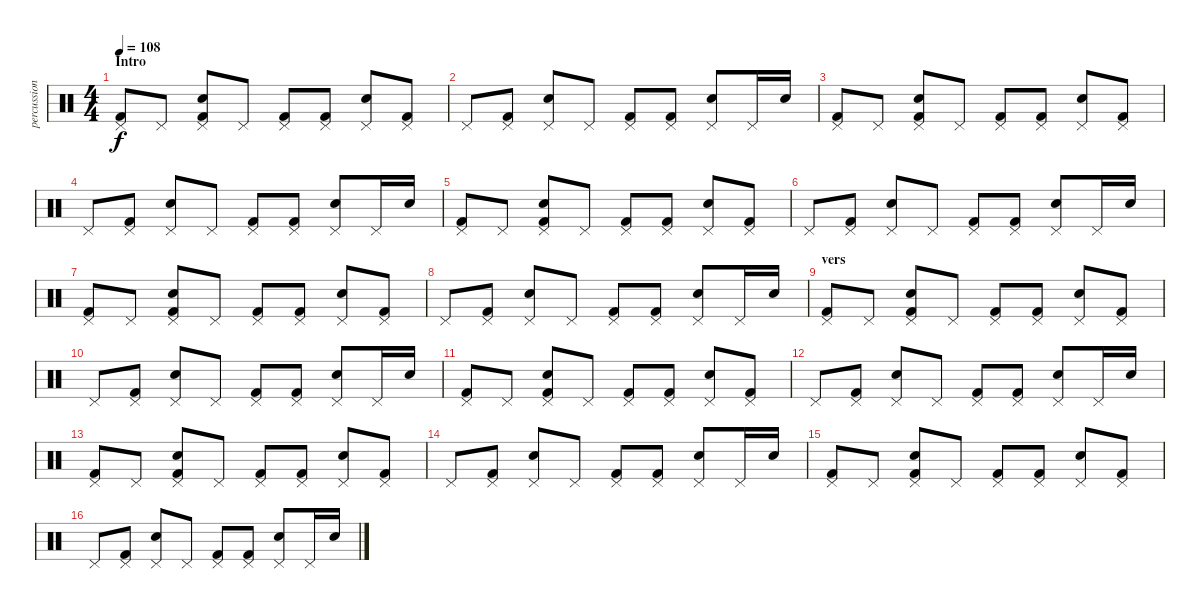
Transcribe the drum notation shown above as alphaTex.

\track ("percussion" "percussion") {instrument percussion}
\staff {score}
\articulation defaults
\ts (4 4)
\section ("" "Intro")
\tempo 108
\clef neutral
\ks c
("Pedal Hi-Hat (hit)" "Kick (hit) 2").8{dy f} "Pedal Hi-Hat (hit)".8 ("Pedal Hi-Hat (hit)" "Kick (hit) 2" "Snare (hit) 2").8 "Pedal Hi-Hat (hit)".8 ("Pedal Hi-Hat (hit)" "Kick (hit) 2").8 ("Pedal Hi-Hat (hit)" "Kick (hit) 2").8 ("Pedal Hi-Hat (hit)" "Snare (hit) 2").8 ("Pedal Hi-Hat (hit)" "Kick (hit) 2").8 |
"Pedal Hi-Hat (hit)".8 ("Pedal Hi-Hat (hit)" "Kick (hit) 2").8 ("Pedal Hi-Hat (hit)" "Snare (hit) 2").8 "Pedal Hi-Hat (hit)".8 ("Pedal Hi-Hat (hit)" "Kick (hit) 2").8 ("Pedal Hi-Hat (hit)" "Kick (hit) 2").8 ("Pedal Hi-Hat (hit)" "Snare (hit) 2").8 "Pedal Hi-Hat (hit)".16 "Snare (hit) 2".16 |
("Pedal Hi-Hat (hit)" "Kick (hit) 2").8 "Pedal Hi-Hat (hit)".8 ("Pedal Hi-Hat (hit)" "Kick (hit) 2" "Snare (hit) 2").8 "Pedal Hi-Hat (hit)".8 ("Pedal Hi-Hat (hit)" "Kick (hit) 2").8 ("Pedal Hi-Hat (hit)" "Kick (hit) 2").8 ("Pedal Hi-Hat (hit)" "Snare (hit) 2").8 ("Pedal Hi-Hat (hit)" "Kick (hit) 2").8 |
"Pedal Hi-Hat (hit)".8 ("Pedal Hi-Hat (hit)" "Kick (hit) 2").8 ("Pedal Hi-Hat (hit)" "Snare (hit) 2").8 "Pedal Hi-Hat (hit)".8 ("Pedal Hi-Hat (hit)" "Kick (hit) 2").8 ("Pedal Hi-Hat (hit)" "Kick (hit) 2").8 ("Pedal Hi-Hat (hit)" "Snare (hit) 2").8 "Pedal Hi-Hat (hit)".16 "Snare (hit) 2".16 |
("Pedal Hi-Hat (hit)" "Kick (hit) 2").8 "Pedal Hi-Hat (hit)".8 ("Pedal Hi-Hat (hit)" "Kick (hit) 2" "Snare (hit) 2").8 "Pedal Hi-Hat (hit)".8 ("Pedal Hi-Hat (hit)" "Kick (hit) 2").8 ("Pedal Hi-Hat (hit)" "Kick (hit) 2").8 ("Pedal Hi-Hat (hit)" "Snare (hit) 2").8 ("Pedal Hi-Hat (hit)" "Kick (hit) 2").8 |
"Pedal Hi-Hat (hit)".8 ("Pedal Hi-Hat (hit)" "Kick (hit) 2").8 ("Pedal Hi-Hat (hit)" "Snare (hit) 2").8 "Pedal Hi-Hat (hit)".8 ("Pedal Hi-Hat (hit)" "Kick (hit) 2").8 ("Pedal Hi-Hat (hit)" "Kick (hit) 2").8 ("Pedal Hi-Hat (hit)" "Snare (hit) 2").8 "Pedal Hi-Hat (hit)".16 "Snare (hit) 2".16 |
("Pedal Hi-Hat (hit)" "Kick (hit) 2").8 "Pedal Hi-Hat (hit)".8 ("Pedal Hi-Hat (hit)" "Kick (hit) 2" "Snare (hit) 2").8 "Pedal Hi-Hat (hit)".8 ("Pedal Hi-Hat (hit)" "Kick (hit) 2").8 ("Pedal Hi-Hat (hit)" "Kick (hit) 2").8 ("Pedal Hi-Hat (hit)" "Snare (hit) 2").8 ("Pedal Hi-Hat (hit)" "Kick (hit) 2").8 |
"Pedal Hi-Hat (hit)".8 ("Pedal Hi-Hat (hit)" "Kick (hit) 2").8 ("Pedal Hi-Hat (hit)" "Snare (hit) 2").8 "Pedal Hi-Hat (hit)".8 ("Pedal Hi-Hat (hit)" "Kick (hit) 2").8 ("Pedal Hi-Hat (hit)" "Kick (hit) 2").8 ("Pedal Hi-Hat (hit)" "Snare (hit) 2").8 "Pedal Hi-Hat (hit)".16 "Snare (hit) 2".16 |
\section ("" "vers")
("Pedal Hi-Hat (hit)" "Kick (hit) 2").8 "Pedal Hi-Hat (hit)".8 ("Pedal Hi-Hat (hit)" "Kick (hit) 2" "Snare (hit) 2").8 "Pedal Hi-Hat (hit)".8 ("Pedal Hi-Hat (hit)" "Kick (hit) 2").8 ("Pedal Hi-Hat (hit)" "Kick (hit) 2").8 ("Pedal Hi-Hat (hit)" "Snare (hit) 2").8 ("Pedal Hi-Hat (hit)" "Kick (hit) 2").8 |
"Pedal Hi-Hat (hit)".8 ("Pedal Hi-Hat (hit)" "Kick (hit) 2").8 ("Pedal Hi-Hat (hit)" "Snare (hit) 2").8 "Pedal Hi-Hat (hit)".8 ("Pedal Hi-Hat (hit)" "Kick (hit) 2").8 ("Pedal Hi-Hat (hit)" "Kick (hit) 2").8 ("Pedal Hi-Hat (hit)" "Snare (hit) 2").8 "Pedal Hi-Hat (hit)".16 "Snare (hit) 2".16 |
("Pedal Hi-Hat (hit)" "Kick (hit) 2").8 "Pedal Hi-Hat (hit)".8 ("Pedal Hi-Hat (hit)" "Kick (hit) 2" "Snare (hit) 2").8 "Pedal Hi-Hat (hit)".8 ("Pedal Hi-Hat (hit)" "Kick (hit) 2").8 ("Pedal Hi-Hat (hit)" "Kick (hit) 2").8 ("Pedal Hi-Hat (hit)" "Snare (hit) 2").8 ("Pedal Hi-Hat (hit)" "Kick (hit) 2").8 |
"Pedal Hi-Hat (hit)".8 ("Pedal Hi-Hat (hit)" "Kick (hit) 2").8 ("Pedal Hi-Hat (hit)" "Snare (hit) 2").8 "Pedal Hi-Hat (hit)".8 ("Pedal Hi-Hat (hit)" "Kick (hit) 2").8 ("Pedal Hi-Hat (hit)" "Kick (hit) 2").8 ("Pedal Hi-Hat (hit)" "Snare (hit) 2").8 "Pedal Hi-Hat (hit)".16 "Snare (hit) 2".16 |
("Pedal Hi-Hat (hit)" "Kick (hit) 2").8 "Pedal Hi-Hat (hit)".8 ("Pedal Hi-Hat (hit)" "Kick (hit) 2" "Snare (hit) 2").8 "Pedal Hi-Hat (hit)".8 ("Pedal Hi-Hat (hit)" "Kick (hit) 2").8 ("Pedal Hi-Hat (hit)" "Kick (hit) 2").8 ("Pedal Hi-Hat (hit)" "Snare (hit) 2").8 ("Pedal Hi-Hat (hit)" "Kick (hit) 2").8 |
"Pedal Hi-Hat (hit)".8 ("Pedal Hi-Hat (hit)" "Kick (hit) 2").8 ("Pedal Hi-Hat (hit)" "Snare (hit) 2").8 "Pedal Hi-Hat (hit)".8 ("Pedal Hi-Hat (hit)" "Kick (hit) 2").8 ("Pedal Hi-Hat (hit)" "Kick (hit) 2").8 ("Pedal Hi-Hat (hit)" "Snare (hit) 2").8 "Pedal Hi-Hat (hit)".16 "Snare (hit) 2".16 |
("Pedal Hi-Hat (hit)" "Kick (hit) 2").8 "Pedal Hi-Hat (hit)".8 ("Pedal Hi-Hat (hit)" "Kick (hit) 2" "Snare (hit) 2").8 "Pedal Hi-Hat (hit)".8 ("Pedal Hi-Hat (hit)" "Kick (hit) 2").8 ("Pedal Hi-Hat (hit)" "Kick (hit) 2").8 ("Pedal Hi-Hat (hit)" "Snare (hit) 2").8 ("Pedal Hi-Hat (hit)" "Kick (hit) 2").8 |
"Pedal Hi-Hat (hit)".8 ("Pedal Hi-Hat (hit)" "Kick (hit) 2").8 ("Pedal Hi-Hat (hit)" "Snare (hit) 2").8 "Pedal Hi-Hat (hit)".8 ("Pedal Hi-Hat (hit)" "Kick (hit) 2").8 ("Pedal Hi-Hat (hit)" "Kick (hit) 2").8 ("Pedal Hi-Hat (hit)" "Snare (hit) 2").8 "Pedal Hi-Hat (hit)".16 "Snare (hit) 2".16
